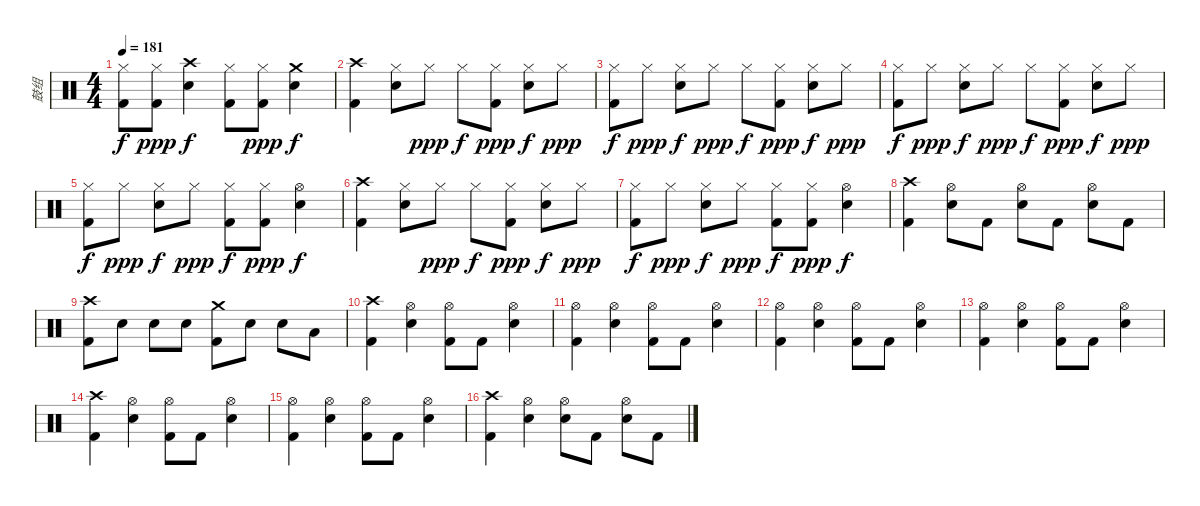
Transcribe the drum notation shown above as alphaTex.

\track ("鼓组" "鼓组") {instrument percussion}
\staff {score}
\articulation defaults
\ts (4 4)
\tempo 181
\clef neutral
\ks c
("Hi-Hat (closed)" "Kick (hit) 2").8{dy f} ("Hi-Hat (closed)" "Kick (hit) 2").8{dy ppp} ("Crash high (hit)" "Snare (hit) 2").4{dy f} ("Hi-Hat (closed)" "Kick (hit) 2").8 ("Hi-Hat (closed)" "Kick (hit) 2").8{dy ppp} ("Crash medium (hit)" "Snare (hit) 2").4{dy f} |
("Crash high (hit)" "Kick (hit) 2").4 ("Hi-Hat (closed)" "Snare (hit) 2").8 "Hi-Hat (closed)".8{dy ppp} "Hi-Hat (closed)".8{dy f} ("Hi-Hat (closed)" "Kick (hit) 2").8{dy ppp} ("Hi-Hat (closed)" "Snare (hit) 2").8{dy f} "Hi-Hat (closed)".8{dy ppp} |
("Hi-Hat (closed)" "Kick (hit) 2").8{dy f} "Hi-Hat (closed)".8{dy ppp} ("Hi-Hat (closed)" "Snare (hit) 2").8{dy f} "Hi-Hat (closed)".8{dy ppp} "Hi-Hat (closed)".8{dy f} ("Hi-Hat (closed)" "Kick (hit) 2").8{dy ppp} ("Hi-Hat (closed)" "Snare (hit) 2").8{dy f} "Hi-Hat (closed)".8{dy ppp} |
("Hi-Hat (closed)" "Kick (hit) 2").8{dy f} "Hi-Hat (closed)".8{dy ppp} ("Hi-Hat (closed)" "Snare (hit) 2").8{dy f} "Hi-Hat (closed)".8{dy ppp} "Hi-Hat (closed)".8{dy f} ("Hi-Hat (closed)" "Kick (hit) 2").8{dy ppp} ("Hi-Hat (closed)" "Snare (hit) 2").8{dy f} "Hi-Hat (closed)".8{dy ppp} |
("Hi-Hat (closed)" "Kick (hit) 2").8{dy f} "Hi-Hat (closed)".8{dy ppp} ("Hi-Hat (closed)" "Snare (hit) 2").8{dy f} "Hi-Hat (closed)".8{dy ppp} ("Hi-Hat (closed)" "Kick (hit) 2").8{dy f} ("Hi-Hat (closed)" "Kick (hit) 2").8{dy ppp} ("Hi-Hat (open)" "Snare (hit) 2").4{dy f} |
("Crash high (hit)" "Kick (hit) 2").4 ("Hi-Hat (closed)" "Snare (hit) 2").8 "Hi-Hat (closed)".8{dy ppp} "Hi-Hat (closed)".8{dy f} ("Hi-Hat (closed)" "Kick (hit) 2").8{dy ppp} ("Hi-Hat (closed)" "Snare (hit) 2").8{dy f} "Hi-Hat (closed)".8{dy ppp} |
("Hi-Hat (closed)" "Kick (hit) 2").8{dy f} "Hi-Hat (closed)".8{dy ppp} ("Hi-Hat (closed)" "Snare (hit) 2").8{dy f} "Hi-Hat (closed)".8{dy ppp} ("Hi-Hat (closed)" "Kick (hit) 2").8{dy f} ("Hi-Hat (closed)" "Kick (hit) 2").8{dy ppp} ("Hi-Hat (open)" "Snare (hit) 2").4{dy f} |
("Crash high (hit)" "Kick (hit) 2").4 ("Hi-Hat (open)" "Snare (hit) 2").8 "Kick (hit) 2".8 ("Hi-Hat (open)" "Snare (hit) 2").8 "Kick (hit) 2".8 ("Hi-Hat (open)" "Snare (hit) 2").8 "Kick (hit) 2".8 |
("Crash high (hit)" "Kick (hit) 2").8 "Snare (hit) 2".8 "Snare (hit) 2".8 "Snare (hit) 2".8 ("Crash medium (hit)" "Kick (hit) 2").8 "Snare (hit) 2".8 "Snare (hit) 2".8 "Low Tom (hit)".8 |
("Crash high (hit)" "Kick (hit) 2").4 ("Hi-Hat (open)" "Snare (hit) 2").4 ("Hi-Hat (open)" "Kick (hit) 2").8 "Kick (hit) 2".8 ("Hi-Hat (open)" "Snare (hit) 2").4 |
("Hi-Hat (open)" "Kick (hit) 2").4 ("Hi-Hat (open)" "Snare (hit) 2").4 ("Hi-Hat (open)" "Kick (hit) 2").8 "Kick (hit) 2".8 ("Hi-Hat (open)" "Snare (hit) 2").4 |
("Hi-Hat (open)" "Kick (hit) 2").4 ("Hi-Hat (open)" "Snare (hit) 2").4 ("Hi-Hat (open)" "Kick (hit) 2").8 "Kick (hit) 2".8 ("Hi-Hat (open)" "Snare (hit) 2").4 |
("Hi-Hat (open)" "Kick (hit) 2").4 ("Hi-Hat (open)" "Snare (hit) 2").4 ("Hi-Hat (open)" "Kick (hit) 2").8 "Kick (hit) 2".8 ("Hi-Hat (open)" "Snare (hit) 2").4 |
("Crash high (hit)" "Kick (hit) 2").4 ("Hi-Hat (open)" "Snare (hit) 2").4 ("Hi-Hat (open)" "Kick (hit) 2").8 "Kick (hit) 2".8 ("Hi-Hat (open)" "Snare (hit) 2").4 |
("Hi-Hat (open)" "Kick (hit) 2").4 ("Hi-Hat (open)" "Snare (hit) 2").4 ("Hi-Hat (open)" "Kick (hit) 2").8 "Kick (hit) 2".8 ("Hi-Hat (open)" "Snare (hit) 2").4 |
("Crash high (hit)" "Kick (hit) 2").4 ("Hi-Hat (open)" "Snare (hit) 2").4 ("Hi-Hat (open)" "Snare (hit) 2").8 "Kick (hit) 2".8 ("Hi-Hat (open)" "Snare (hit) 2").8 "Kick (hit) 2".8
